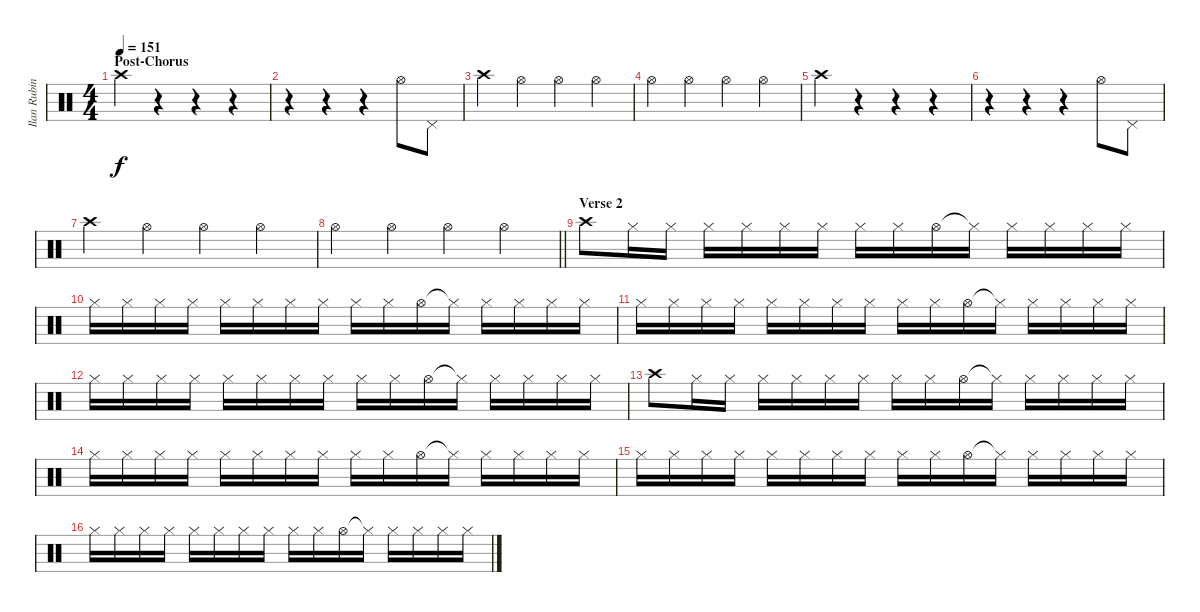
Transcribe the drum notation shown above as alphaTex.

\track ("Ilan Rubin [Drums]" "Ilan Rubin") {instrument percussion}
\staff {score}
\articulation defaults
\ts (4 4)
\section ("" "Post-Chorus")
\tempo 151
\clef neutral
\ks c "Crash high (hit)".4{dy f}
r.4 r.4 r.4 |
r.4 r.4 r.4 "Hi-Hat (open)".8 "Pedal Hi-Hat (hit)".8 |
"Crash high (hit)".4 "Hi-Hat (open)".4 "Hi-Hat (open)".4 "Hi-Hat (open)".4 |
"Hi-Hat (open)".4 "Hi-Hat (open)".4 "Hi-Hat (open)".4 "Hi-Hat (open)".4 |
"Crash high (hit)".4 r.4 r.4 r.4 |
r.4 r.4 r.4 "Hi-Hat (open)".8 "Pedal Hi-Hat (hit)".8 |
"Crash high (hit)".4 "Hi-Hat (open)".4 "Hi-Hat (open)".4 "Hi-Hat (open)".4 |
\barLineRight lightlight "Hi-Hat (open)".4 "Hi-Hat (open)".4 "Hi-Hat (open)".4 "Hi-Hat (open)".4
|
\section ("" "Verse 2")
"Crash high (hit)".8 "Hi-Hat (closed)".16 "Hi-Hat (closed)".16 "Hi-Hat (closed)".16 "Hi-Hat (closed)".16 "Hi-Hat (closed)".16 "Hi-Hat (closed)".16 "Hi-Hat (closed)".16 "Hi-Hat (closed)".16 "Hi-Hat (open)".16 "Hi-Hat (closed)"{t}.16 "Hi-Hat (closed)".16 "Hi-Hat (closed)".16 "Hi-Hat (closed)".16 "Hi-Hat (closed)".16 |
"Hi-Hat (closed)".16 "Hi-Hat (closed)".16 "Hi-Hat (closed)".16 "Hi-Hat (closed)".16 "Hi-Hat (closed)".16 "Hi-Hat (closed)".16 "Hi-Hat (closed)".16 "Hi-Hat (closed)".16 "Hi-Hat (closed)".16 "Hi-Hat (closed)".16 "Hi-Hat (open)".16 "Hi-Hat (closed)"{t}.16 "Hi-Hat (closed)".16 "Hi-Hat (closed)".16 "Hi-Hat (closed)".16 "Hi-Hat (closed)".16 |
"Hi-Hat (closed)".16 "Hi-Hat (closed)".16 "Hi-Hat (closed)".16 "Hi-Hat (closed)".16 "Hi-Hat (closed)".16 "Hi-Hat (closed)".16 "Hi-Hat (closed)".16 "Hi-Hat (closed)".16 "Hi-Hat (closed)".16 "Hi-Hat (closed)".16 "Hi-Hat (open)".16 "Hi-Hat (closed)"{t}.16 "Hi-Hat (closed)".16 "Hi-Hat (closed)".16 "Hi-Hat (closed)".16 "Hi-Hat (closed)".16 |
"Hi-Hat (closed)".16 "Hi-Hat (closed)".16 "Hi-Hat (closed)".16 "Hi-Hat (closed)".16 "Hi-Hat (closed)".16 "Hi-Hat (closed)".16 "Hi-Hat (closed)".16 "Hi-Hat (closed)".16 "Hi-Hat (closed)".16 "Hi-Hat (closed)".16 "Hi-Hat (open)".16 "Hi-Hat (closed)"{t}.16 "Hi-Hat (closed)".16 "Hi-Hat (closed)".16 "Hi-Hat (closed)".16 "Hi-Hat (closed)".16 |
"Crash high (hit)".8 "Hi-Hat (closed)".16 "Hi-Hat (closed)".16 "Hi-Hat (closed)".16 "Hi-Hat (closed)".16 "Hi-Hat (closed)".16 "Hi-Hat (closed)".16 "Hi-Hat (closed)".16 "Hi-Hat (closed)".16 "Hi-Hat (open)".16 "Hi-Hat (closed)"{t}.16 "Hi-Hat (closed)".16 "Hi-Hat (closed)".16 "Hi-Hat (closed)".16 "Hi-Hat (closed)".16 |
"Hi-Hat (closed)".16 "Hi-Hat (closed)".16 "Hi-Hat (closed)".16 "Hi-Hat (closed)".16 "Hi-Hat (closed)".16 "Hi-Hat (closed)".16 "Hi-Hat (closed)".16 "Hi-Hat (closed)".16 "Hi-Hat (closed)".16 "Hi-Hat (closed)".16 "Hi-Hat (open)".16 "Hi-Hat (closed)"{t}.16 "Hi-Hat (closed)".16 "Hi-Hat (closed)".16 "Hi-Hat (closed)".16 "Hi-Hat (closed)".16 |
"Hi-Hat (closed)".16 "Hi-Hat (closed)".16 "Hi-Hat (closed)".16 "Hi-Hat (closed)".16 "Hi-Hat (closed)".16 "Hi-Hat (closed)".16 "Hi-Hat (closed)".16 "Hi-Hat (closed)".16 "Hi-Hat (closed)".16 "Hi-Hat (closed)".16 "Hi-Hat (open)".16 "Hi-Hat (closed)"{t}.16 "Hi-Hat (closed)".16 "Hi-Hat (closed)".16 "Hi-Hat (closed)".16 "Hi-Hat (closed)".16 |
"Hi-Hat (closed)".16 "Hi-Hat (closed)".16 "Hi-Hat (closed)".16 "Hi-Hat (closed)".16 "Hi-Hat (closed)".16 "Hi-Hat (closed)".16 "Hi-Hat (closed)".16 "Hi-Hat (closed)".16 "Hi-Hat (closed)".16 "Hi-Hat (closed)".16 "Hi-Hat (open)".16 "Hi-Hat (closed)"{t}.16 "Hi-Hat (closed)".16 "Hi-Hat (closed)".16 "Hi-Hat (closed)".16 "Hi-Hat (closed)".16
